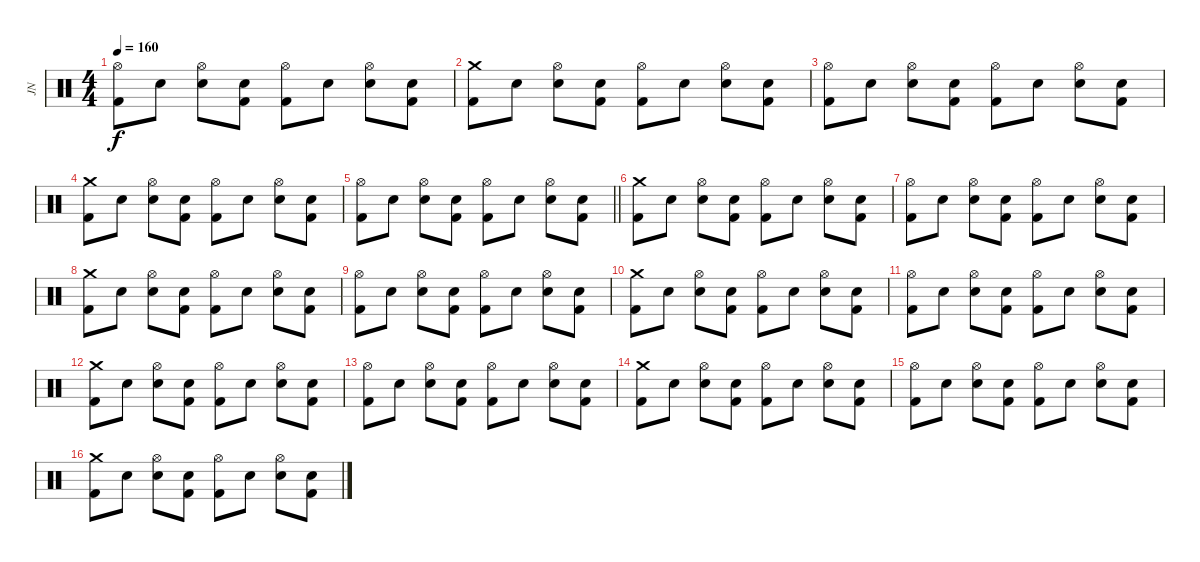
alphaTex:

\track ("JN" "JN") {instrument percussion}
\staff {score}
\articulation defaults
\ts (4 4)
\tempo 160
\clef neutral
\ks c
("Hi-Hat (open)" "Kick (hit) 2").8{dy f} "Snare (hit)".8 ("Hi-Hat (open)" "Electric Snare (hit)").8 ("Snare (hit)" "Kick (hit) 2").8 ("Hi-Hat (open)" "Kick (hit) 2").8 "Snare (hit)".8 ("Hi-Hat (open)" "Electric Snare (hit)").8 ("Snare (hit)" "Kick (hit) 2").8 |
("Crash medium (hit)" "Kick (hit) 2").8 "Snare (hit)".8 ("Hi-Hat (open)" "Electric Snare (hit)").8 ("Snare (hit)" "Kick (hit) 2").8 ("Hi-Hat (open)" "Kick (hit) 2").8 "Snare (hit)".8 ("Hi-Hat (open)" "Electric Snare (hit)").8 ("Snare (hit)" "Kick (hit) 2").8 |
("Hi-Hat (open)" "Kick (hit) 2").8 "Snare (hit)".8 ("Hi-Hat (open)" "Electric Snare (hit)").8 ("Snare (hit)" "Kick (hit) 2").8 ("Hi-Hat (open)" "Kick (hit) 2").8 "Snare (hit)".8 ("Hi-Hat (open)" "Electric Snare (hit)").8 ("Snare (hit)" "Kick (hit) 2").8 |
("Crash medium (hit)" "Kick (hit) 2").8 "Snare (hit)".8 ("Hi-Hat (open)" "Electric Snare (hit)").8 ("Snare (hit)" "Kick (hit) 2").8 ("Hi-Hat (open)" "Kick (hit) 2").8 "Snare (hit)".8 ("Hi-Hat (open)" "Electric Snare (hit)").8 ("Snare (hit)" "Kick (hit) 2").8 |
\barLineRight lightlight
("Hi-Hat (open)" "Kick (hit) 2").8 "Snare (hit)".8 ("Hi-Hat (open)" "Electric Snare (hit)").8 ("Snare (hit)" "Kick (hit) 2").8 ("Hi-Hat (open)" "Kick (hit) 2").8 "Snare (hit)".8 ("Hi-Hat (open)" "Electric Snare (hit)").8 ("Snare (hit)" "Kick (hit) 2").8 |
("Crash medium (hit)" "Kick (hit) 2").8 "Snare (hit)".8 ("Hi-Hat (open)" "Electric Snare (hit)").8 ("Snare (hit)" "Kick (hit) 2").8 ("Hi-Hat (open)" "Kick (hit) 2").8 "Snare (hit)".8 ("Hi-Hat (open)" "Electric Snare (hit)").8 ("Snare (hit)" "Kick (hit) 2").8 |
("Hi-Hat (open)" "Kick (hit) 2").8 "Snare (hit)".8 ("Hi-Hat (open)" "Electric Snare (hit)").8 ("Snare (hit)" "Kick (hit) 2").8 ("Hi-Hat (open)" "Kick (hit) 2").8 "Snare (hit)".8 ("Hi-Hat (open)" "Electric Snare (hit)").8 ("Snare (hit)" "Kick (hit) 2").8 |
("Crash medium (hit)" "Kick (hit) 2").8 "Snare (hit)".8 ("Hi-Hat (open)" "Electric Snare (hit)").8 ("Snare (hit)" "Kick (hit) 2").8 ("Hi-Hat (open)" "Kick (hit) 2").8 "Snare (hit)".8 ("Hi-Hat (open)" "Electric Snare (hit)").8 ("Snare (hit)" "Kick (hit) 2").8 |
("Hi-Hat (open)" "Kick (hit) 2").8 "Snare (hit)".8 ("Hi-Hat (open)" "Electric Snare (hit)").8 ("Snare (hit)" "Kick (hit) 2").8 ("Hi-Hat (open)" "Kick (hit) 2").8 "Snare (hit)".8 ("Hi-Hat (open)" "Electric Snare (hit)").8 ("Snare (hit)" "Kick (hit) 2").8 |
("Crash medium (hit)" "Kick (hit) 2").8 "Snare (hit)".8 ("Hi-Hat (open)" "Electric Snare (hit)").8 ("Snare (hit)" "Kick (hit) 2").8 ("Hi-Hat (open)" "Kick (hit) 2").8 "Snare (hit)".8 ("Hi-Hat (open)" "Electric Snare (hit)").8 ("Snare (hit)" "Kick (hit) 2").8 |
("Hi-Hat (open)" "Kick (hit) 2").8 "Snare (hit)".8 ("Hi-Hat (open)" "Electric Snare (hit)").8 ("Snare (hit)" "Kick (hit) 2").8 ("Hi-Hat (open)" "Kick (hit) 2").8 "Snare (hit)".8 ("Hi-Hat (open)" "Electric Snare (hit)").8 ("Snare (hit)" "Kick (hit) 2").8 |
("Crash medium (hit)" "Kick (hit) 2").8 "Snare (hit)".8 ("Hi-Hat (open)" "Electric Snare (hit)").8 ("Snare (hit)" "Kick (hit) 2").8 ("Hi-Hat (open)" "Kick (hit) 2").8 "Snare (hit)".8 ("Hi-Hat (open)" "Electric Snare (hit)").8 ("Snare (hit)" "Kick (hit) 2").8 |
("Hi-Hat (open)" "Kick (hit) 2").8 "Snare (hit)".8 ("Hi-Hat (open)" "Electric Snare (hit)").8 ("Snare (hit)" "Kick (hit) 2").8 ("Hi-Hat (open)" "Kick (hit) 2").8 "Snare (hit)".8 ("Hi-Hat (open)" "Electric Snare (hit)").8 ("Snare (hit)" "Kick (hit) 2").8 |
("Crash medium (hit)" "Kick (hit) 2").8 "Snare (hit)".8 ("Hi-Hat (open)" "Electric Snare (hit)").8 ("Snare (hit)" "Kick (hit) 2").8 ("Hi-Hat (open)" "Kick (hit) 2").8 "Snare (hit)".8 ("Hi-Hat (open)" "Electric Snare (hit)").8 ("Snare (hit)" "Kick (hit) 2").8 |
("Hi-Hat (open)" "Kick (hit) 2").8 "Snare (hit)".8 ("Hi-Hat (open)" "Electric Snare (hit)").8 ("Snare (hit)" "Kick (hit) 2").8 ("Hi-Hat (open)" "Kick (hit) 2").8 "Snare (hit)".8 ("Hi-Hat (open)" "Electric Snare (hit)").8 ("Snare (hit)" "Kick (hit) 2").8 |
("Crash medium (hit)" "Kick (hit) 2").8 "Snare (hit)".8 ("Hi-Hat (open)" "Electric Snare (hit)").8 ("Snare (hit)" "Kick (hit) 2").8 ("Hi-Hat (open)" "Kick (hit) 2").8 "Snare (hit)".8 ("Hi-Hat (open)" "Electric Snare (hit)").8 ("Snare (hit)" "Kick (hit) 2").8
